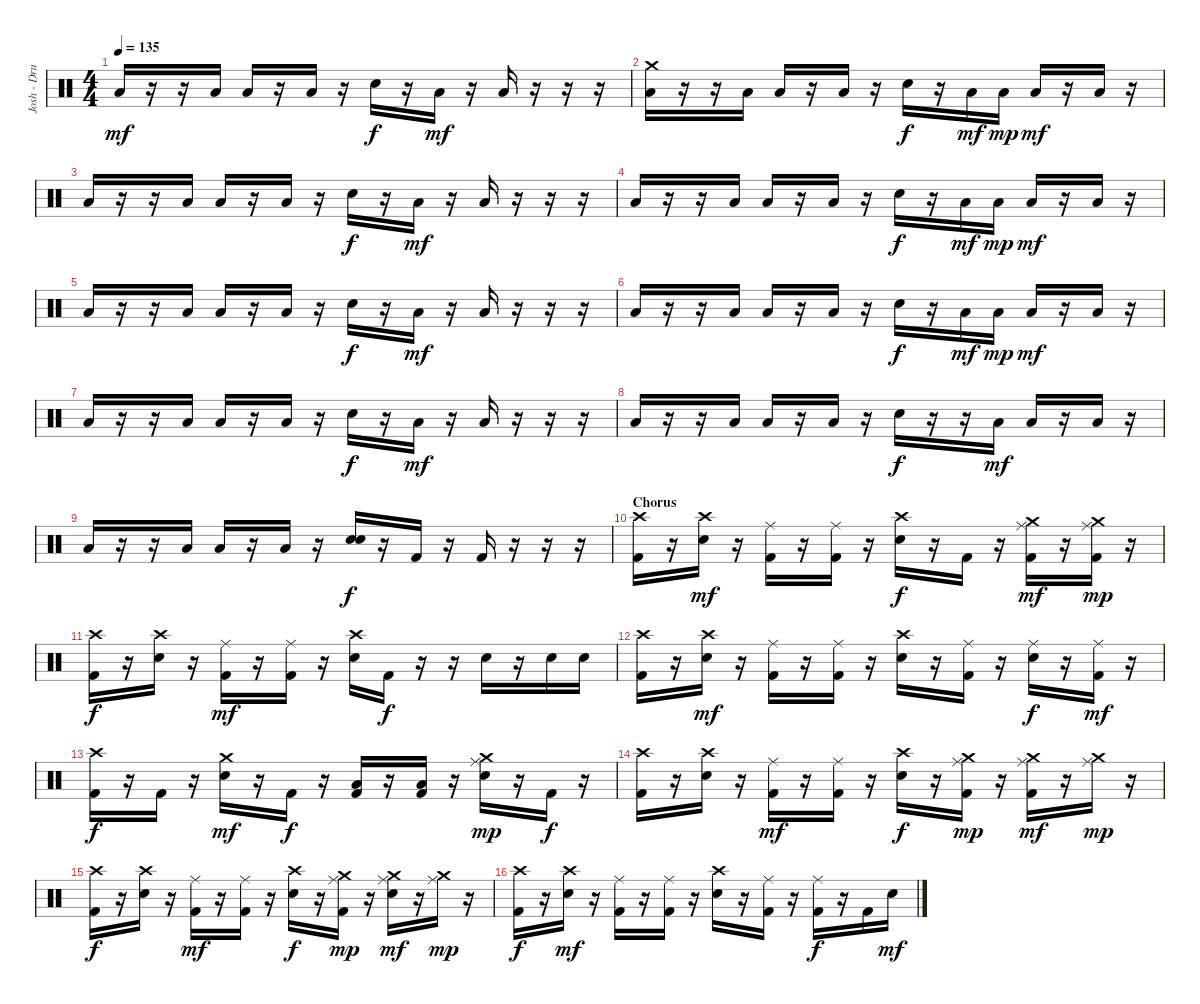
\track ("Josh - Drums" "Josh - Dru") {instrument percussion}
\staff {score}
\articulation defaults
\ts (4 4)
\tempo 135
\clef neutral
\ks c "Low Floor Tom (hit)".16{dy mf}
r.16 r.16 "Low Floor Tom (hit)".16 "Low Floor Tom (hit)".16 r.16 "Low Floor Tom (hit)".16 r.16 "Electric Snare (hit)".16{dy f} r.16 "Low Floor Tom (hit)".16{dy mf} r.16 "Low Floor Tom (hit)".16 r.16 r.16 r.16 |
("Crash medium (hit)" "Low Floor Tom (hit)").16 r.16 r.16 "Low Floor Tom (hit)".16 "Low Floor Tom (hit)".16 r.16 "Low Floor Tom (hit)".16 r.16 "Electric Snare (hit)".16{dy f} r.16 "Low Floor Tom (hit)".16{dy mf} "Low Floor Tom (hit)".16{dy mp} "Low Floor Tom (hit)".16{dy mf} r.16 "Low Floor Tom (hit)".16 r.16 |
"Low Floor Tom (hit)".16 r.16 r.16 "Low Floor Tom (hit)".16 "Low Floor Tom (hit)".16 r.16 "Low Floor Tom (hit)".16 r.16 "Electric Snare (hit)".16{dy f} r.16 "Low Floor Tom (hit)".16{dy mf} r.16 "Low Floor Tom (hit)".16 r.16 r.16 r.16 |
"Low Floor Tom (hit)".16 r.16 r.16 "Low Floor Tom (hit)".16 "Low Floor Tom (hit)".16 r.16 "Low Floor Tom (hit)".16 r.16 "Electric Snare (hit)".16{dy f} r.16 "Low Floor Tom (hit)".16{dy mf} "Low Floor Tom (hit)".16{dy mp} "Low Floor Tom (hit)".16{dy mf} r.16 "Low Floor Tom (hit)".16 r.16 |
"Low Floor Tom (hit)".16 r.16 r.16 "Low Floor Tom (hit)".16 "Low Floor Tom (hit)".16 r.16 "Low Floor Tom (hit)".16 r.16 "Electric Snare (hit)".16{dy f} r.16 "Low Floor Tom (hit)".16{dy mf} r.16 "Low Floor Tom (hit)".16 r.16 r.16 r.16 |
"Low Floor Tom (hit)".16 r.16 r.16 "Low Floor Tom (hit)".16 "Low Floor Tom (hit)".16 r.16 "Low Floor Tom (hit)".16 r.16 "Electric Snare (hit)".16{dy f} r.16 "Low Floor Tom (hit)".16{dy mf} "Low Floor Tom (hit)".16{dy mp} "Low Floor Tom (hit)".16{dy mf} r.16 "Low Floor Tom (hit)".16 r.16 |
"Low Floor Tom (hit)".16 r.16 r.16 "Low Floor Tom (hit)".16 "Low Floor Tom (hit)".16 r.16 "Low Floor Tom (hit)".16 r.16 "Electric Snare (hit)".16{dy f} r.16 "Low Floor Tom (hit)".16{dy mf} r.16 "Low Floor Tom (hit)".16 r.16 r.16 r.16 |
"Low Floor Tom (hit)".16 r.16 r.16 "Low Floor Tom (hit)".16 "Low Floor Tom (hit)".16 r.16 "Low Floor Tom (hit)".16 r.16 "Electric Snare (hit)".16{dy f} r.16 r.16 "Low Floor Tom (hit)".16{dy mf} "Low Floor Tom (hit)".16 r.16 "Low Floor Tom (hit)".16 r.16 |
"Low Floor Tom (hit)".16 r.16 r.16 "Low Floor Tom (hit)".16 "Low Floor Tom (hit)".16 r.16 "Low Floor Tom (hit)".16 r.16 ("Electric Snare (hit)" "Electric Snare (hit)").16{bd 240 dy f} r.16 "Kick (hit) 2".16 r.16 "Kick (hit) 2".16 r.16 r.16 r.16 |
\section ("" "Chorus")
("Crash high (hit)" "Kick (hit) 2").16 r.16 ("Crash high (hit)" "Electric Snare (hit)").16{dy mf} r.16 ("Ride (middle)" "Kick (hit) 2").16 r.16 ("Ride (middle)" "Kick (hit) 2").16 r.16 ("Crash high (hit)" "Electric Snare (hit)").16{dy f} r.16 "Kick (hit) 2".16 r.16 ("Crash medium (hit)" "Ride (middle)" "Kick (hit) 2").16{dy mf} r.16 ("Crash medium (hit)" "Ride (middle)" "Kick (hit) 2").16{dy mp} r.16 |
("Crash high (hit)" "Kick (hit) 2").16{dy f} r.16 ("Crash high (hit)" "Electric Snare (hit)").16 r.16 ("Ride (middle)" "Kick (hit) 2").16{dy mf} r.16 ("Ride (middle)" "Kick (hit) 2").16 r.16 ("Crash high (hit)" "Electric Snare (hit)").16 "Kick (hit) 2".16{dy f} r.16 r.16 "Electric Snare (hit)".16 r.16 "Electric Snare (hit)".16 "Electric Snare (hit)".16 |
("Crash high (hit)" "Kick (hit) 2").16 r.16 ("Crash high (hit)" "Electric Snare (hit)").16{dy mf} r.16 ("Ride (middle)" "Kick (hit) 2").16 r.16 ("Ride (middle)" "Kick (hit) 2").16 r.16 ("Crash high (hit)" "Electric Snare (hit)").16 r.16 ("Ride (middle)" "Kick (hit) 2").16 r.16 ("Ride (middle)" "Electric Snare (hit)").16{dy f} r.16 ("Ride (middle)" "Kick (hit) 2").16{dy mf} r.16 |
("Crash high (hit)" "Kick (hit) 2").16{dy f} r.16 "Kick (hit) 2".16 r.16 ("Crash medium (hit)" "Electric Snare (hit)").16{dy mf} r.16 "Kick (hit) 2".16{dy f} r.16 ("Low Floor Tom (hit)" "Kick (hit) 2").16 r.16 ("Low Floor Tom (hit)" "Kick (hit) 2").16 r.16 ("Crash medium (hit)" "Ride (middle)" "Electric Snare (hit)").16{dy mp} r.16 "Kick (hit) 2".16{dy f} r.16 |
("Crash high (hit)" "Kick (hit) 2").16 r.16 ("Crash high (hit)" "Electric Snare (hit)").16 r.16 ("Ride (middle)" "Kick (hit) 2").16{dy mf} r.16 ("Ride (middle)" "Kick (hit) 2").16 r.16 ("Crash high (hit)" "Electric Snare (hit)").16{dy f} r.16 ("Crash medium (hit)" "Ride (middle)" "Kick (hit) 2").16{dy mp} r.16 ("Crash medium (hit)" "Ride (middle)" "Kick (hit) 2").16{dy mf} r.16 ("Crash medium (hit)" "Ride (middle)").16{dy mp} r.16 |
("Crash high (hit)" "Kick (hit) 2").16{dy f} r.16 ("Crash high (hit)" "Electric Snare (hit)").16 r.16 ("Ride (middle)" "Kick (hit) 2").16{dy mf} r.16 ("Ride (middle)" "Kick (hit) 2").16 r.16 ("Crash high (hit)" "Electric Snare (hit)").16{dy f} r.16 ("Crash medium (hit)" "Ride (middle)" "Kick (hit) 2").16{dy mp} r.16 ("Crash medium (hit)" "Ride (middle)" "Electric Snare (hit)").16{dy mf} r.16 ("Crash medium (hit)" "Ride (middle)").16{dy mp} r.16 |
("Crash high (hit)" "Kick (hit) 2").16{dy f} r.16 ("Crash high (hit)" "Electric Snare (hit)").16{dy mf} r.16 ("Ride (middle)" "Kick (hit) 2").16 r.16 ("Ride (middle)" "Kick (hit) 2").16 r.16 ("Crash high (hit)" "Electric Snare (hit)").16 r.16 ("Ride (middle)" "Kick (hit) 2").16 r.16 ("Ride (middle)" "Kick (hit) 2").16{dy f} r.16 "Kick (hit) 2".16 "Electric Snare (hit)".16{dy mf}
